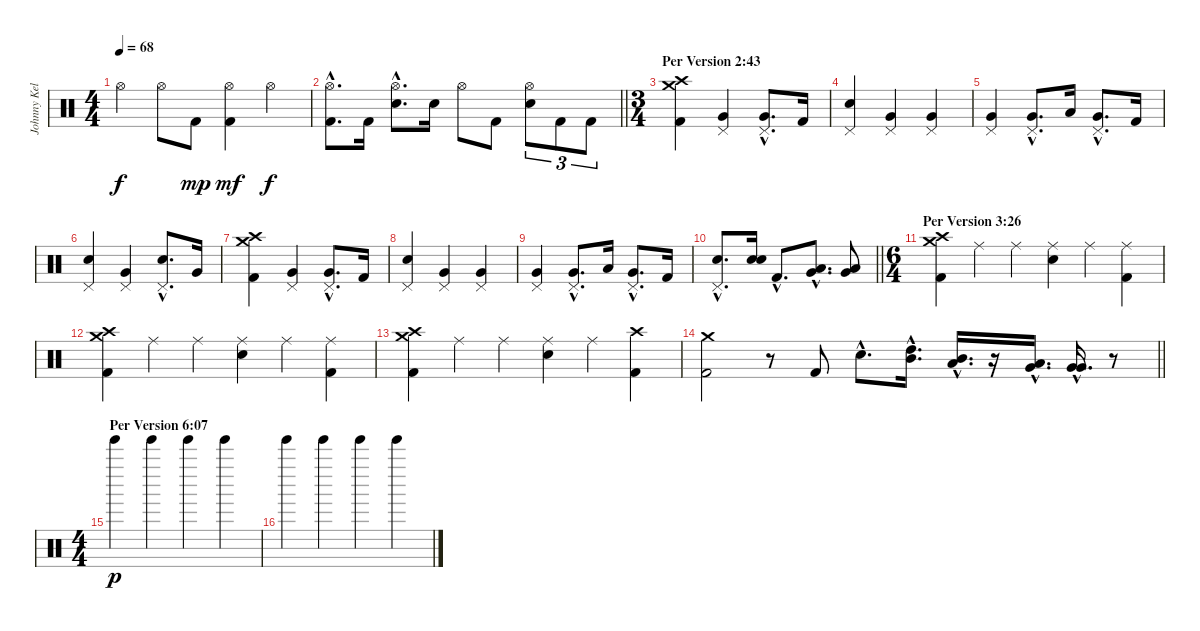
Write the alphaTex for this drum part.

\track ("Johnny Kelly" "Johnny Kel") {instrument percussion}
\staff {score}
\articulation defaults
\ts (4 4)
\tempo 68
\clef neutral
\ks c "Hi-Hat (open)".4{dy f} "Hi-Hat (open)".8 "Kick (hit) 2".8{dy mp}
("Hi-Hat (open)" "Kick (hit) 2").4{dy mf} "Hi-Hat (open)".4{dy f} |
\barLineRight lightlight
("Hi-Hat (open)"{hac} "Kick (hit) 2"{hac}).8{d} "Kick (hit) 2".16 ("Hi-Hat (open)"{hac} "Electric Snare (hit)"{hac}).8{d} "Electric Snare (hit)".16 "Hi-Hat (open)".8 "Kick (hit) 2".8 ("Hi-Hat (open)" "Electric Snare (hit)").8{tu (3 2)} "Kick (hit) 2".8{tu (3 2)} "Kick (hit) 2".8{tu (3 2)} |
\ts (3 4)
\section ("" "Per Version 2:43")
("Crash high (hit)" "Crash medium (hit)" "Kick (hit) 2").4 ("Pedal Hi-Hat (hit)" "Very Low Tom (hit)").4 ("Pedal Hi-Hat (hit)"{hac} "Very Low Tom (hit)"{hac}).8{d} "Kick (hit) 2".16 |
("Pedal Hi-Hat (hit)" "Electric Snare (hit)").4 ("Pedal Hi-Hat (hit)" "Very Low Tom (hit)").4 ("Pedal Hi-Hat (hit)" "Very Low Tom (hit)").4 |
("Pedal Hi-Hat (hit)" "Very Low Tom (hit)").4 ("Pedal Hi-Hat (hit)"{hac} "Very Low Tom (hit)"{hac}).8{d} "Low Tom (hit)".16 ("Pedal Hi-Hat (hit)"{hac} "Very Low Tom (hit)"{hac}).8{d} "Kick (hit) 2".16 |
("Pedal Hi-Hat (hit)" "Electric Snare (hit)").4 ("Pedal Hi-Hat (hit)" "Very Low Tom (hit)").4 ("Pedal Hi-Hat (hit)"{hac} "Electric Snare (hit)"{hac}).8{d} "Very Low Tom (hit)".16 |
("Crash high (hit)" "Crash medium (hit)" "Kick (hit) 2").4 ("Pedal Hi-Hat (hit)" "Very Low Tom (hit)").4 ("Pedal Hi-Hat (hit)"{hac} "Very Low Tom (hit)"{hac}).8{d} "Kick (hit) 2".16 |
("Pedal Hi-Hat (hit)" "Electric Snare (hit)").4 ("Pedal Hi-Hat (hit)" "Very Low Tom (hit)").4 ("Pedal Hi-Hat (hit)" "Very Low Tom (hit)").4 |
("Pedal Hi-Hat (hit)" "Very Low Tom (hit)").4 ("Pedal Hi-Hat (hit)"{hac} "Very Low Tom (hit)"{hac}).8{d} "Low Tom (hit)".16 ("Pedal Hi-Hat (hit)"{hac} "Very Low Tom (hit)"{hac}).8{d} "Kick (hit) 2".16 |
\barLineRight lightlight
("Pedal Hi-Hat (hit)"{hac} "Electric Snare (hit)"{hac}).8{d} ("Electric Snare (hit)" "Electric Snare (hit)").16 "Kick (hit) 2"{hac}.8{d} ("Low Tom (hit)"{hac} "Very Low Tom (hit)"{hac}).8{d} ("Very Low Tom (hit)" "Low Floor Tom (hit)").8 |
\ts (6 4)
\section ("" "Per Version 3:26")
("Crash high (hit)" "Crash medium (hit)" "Kick (hit) 2").4 "Ride (middle)".4 "Ride (middle)".4 ("Ride (middle)" "Electric Snare (hit)").4 "Ride (middle)".4 ("Ride (middle)" "Kick (hit) 2").4 |
("Crash high (hit)" "Crash medium (hit)" "Kick (hit) 2").4 "Ride (middle)".4 "Ride (middle)".4 ("Ride (middle)" "Electric Snare (hit)").4 "Ride (middle)".4 ("Ride (middle)" "Kick (hit) 2").4 |
("Crash high (hit)" "Crash medium (hit)" "Kick (hit) 2").4 "Ride (middle)".4 "Ride (middle)".4 ("Ride (middle)" "Electric Snare (hit)").4 "Ride (middle)".4 ("Crash high (hit)" "Kick (hit) 2").4 |
\barLineRight lightlight
("Crash medium (hit)" "Kick (hit) 2").2 r.8 "Kick (hit) 2".8 "Electric Snare (hit)"{hac}.8{d} ("High Tom (hit)"{hac} "Mid Tom (hit)"{hac}).16{d} ("Mid Tom (hit)"{hac} "Low Tom (hit)"{hac}).16{d} r.16 ("Low Tom (hit)"{hac} "Very Low Tom (hit)"{hac}).16{d} ("Very Low Tom (hit)"{hac} "Very Low Tom (hit)"{hac}).16{d} r.8 |
\ts (4 4)
\section ("" "Per Version 6:07")
"Tinkle Bell (hit)".4{dy p} "Tinkle Bell (hit)".4 "Tinkle Bell (hit)".4 "Tinkle Bell (hit)".4 |
"Tinkle Bell (hit)".4 "Tinkle Bell (hit)".4 "Tinkle Bell (hit)".4 "Tinkle Bell (hit)".4
